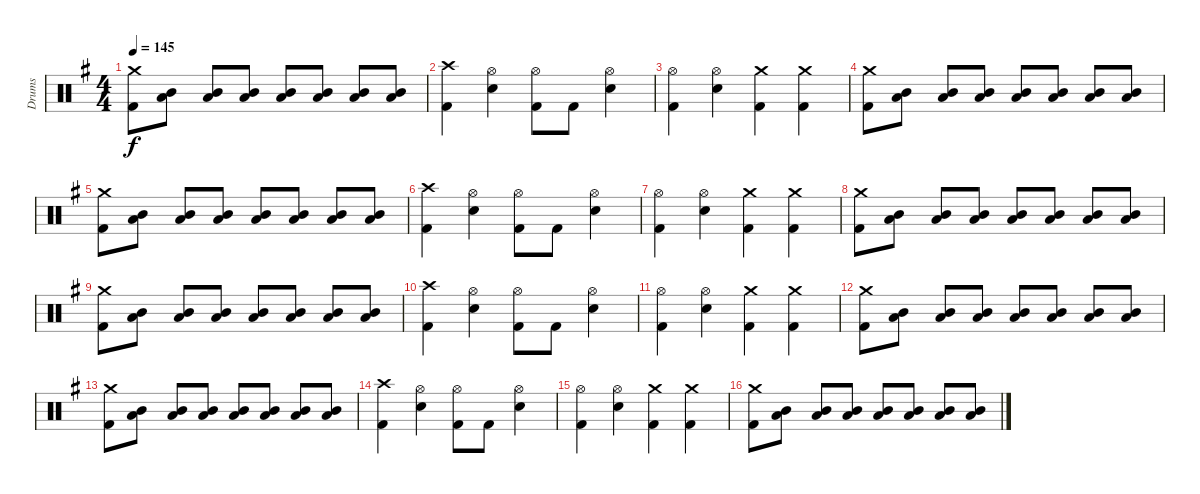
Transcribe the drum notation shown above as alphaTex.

\track ("Drums" "Drums") {instrument percussion}
\staff {score}
\articulation defaults
\ts (4 4)
\tempo 145
\clef neutral
\ks eminor
("Crash medium (hit)" "Kick (hit) 2").8{dy f} ("Low Tom (hit)" "Mid Tom (hit)").8 ("Low Tom (hit)" "Mid Tom (hit)").8 ("Low Tom (hit)" "Mid Tom (hit)").8 ("Low Tom (hit)" "Mid Tom (hit)").8 ("Low Tom (hit)" "Mid Tom (hit)").8 ("Low Tom (hit)" "Mid Tom (hit)").8 ("Low Tom (hit)" "Mid Tom (hit)").8 |
("Crash high (hit)" "Kick (hit) 2").4 ("Hi-Hat (open)" "Electric Snare (hit)").4 ("Hi-Hat (open)" "Kick (hit) 2").8 "Kick (hit) 2".8 ("Hi-Hat (open)" "Electric Snare (hit)").4 |
("Hi-Hat (open)" "Kick (hit) 2").4 ("Electric Snare (hit)" "Hi-Hat (open)").4 ("Crash medium (hit)" "Kick (hit) 2").4 ("Crash medium (hit)" "Kick (hit) 2").4 |
("Crash medium (hit)" "Kick (hit) 2").8 ("Low Tom (hit)" "Mid Tom (hit)").8 ("Low Tom (hit)" "Mid Tom (hit)").8 ("Low Tom (hit)" "Mid Tom (hit)").8 ("Low Tom (hit)" "Mid Tom (hit)").8 ("Low Tom (hit)" "Mid Tom (hit)").8 ("Low Tom (hit)" "Mid Tom (hit)").8 ("Low Tom (hit)" "Mid Tom (hit)").8 |
("Crash medium (hit)" "Kick (hit) 2").8 ("Low Tom (hit)" "Mid Tom (hit)").8 ("Low Tom (hit)" "Mid Tom (hit)").8 ("Low Tom (hit)" "Mid Tom (hit)").8 ("Low Tom (hit)" "Mid Tom (hit)").8 ("Low Tom (hit)" "Mid Tom (hit)").8 ("Low Tom (hit)" "Mid Tom (hit)").8 ("Low Tom (hit)" "Mid Tom (hit)").8 |
("Crash high (hit)" "Kick (hit) 2").4 ("Hi-Hat (open)" "Electric Snare (hit)").4 ("Hi-Hat (open)" "Kick (hit) 2").8 "Kick (hit) 2".8 ("Hi-Hat (open)" "Electric Snare (hit)").4 |
("Hi-Hat (open)" "Kick (hit) 2").4 ("Electric Snare (hit)" "Hi-Hat (open)").4 ("Crash medium (hit)" "Kick (hit) 2").4 ("Crash medium (hit)" "Kick (hit) 2").4 |
("Crash medium (hit)" "Kick (hit) 2").8 ("Low Tom (hit)" "Mid Tom (hit)").8 ("Low Tom (hit)" "Mid Tom (hit)").8 ("Low Tom (hit)" "Mid Tom (hit)").8 ("Low Tom (hit)" "Mid Tom (hit)").8 ("Low Tom (hit)" "Mid Tom (hit)").8 ("Low Tom (hit)" "Mid Tom (hit)").8 ("Low Tom (hit)" "Mid Tom (hit)").8 |
("Crash medium (hit)" "Kick (hit) 2").8 ("Low Tom (hit)" "Mid Tom (hit)").8 ("Low Tom (hit)" "Mid Tom (hit)").8 ("Low Tom (hit)" "Mid Tom (hit)").8 ("Low Tom (hit)" "Mid Tom (hit)").8 ("Low Tom (hit)" "Mid Tom (hit)").8 ("Low Tom (hit)" "Mid Tom (hit)").8 ("Low Tom (hit)" "Mid Tom (hit)").8 |
("Crash high (hit)" "Kick (hit) 2").4 ("Hi-Hat (open)" "Electric Snare (hit)").4 ("Hi-Hat (open)" "Kick (hit) 2").8 "Kick (hit) 2".8 ("Hi-Hat (open)" "Electric Snare (hit)").4 |
("Hi-Hat (open)" "Kick (hit) 2").4 ("Electric Snare (hit)" "Hi-Hat (open)").4 ("Crash medium (hit)" "Kick (hit) 2").4 ("Crash medium (hit)" "Kick (hit) 2").4 |
("Crash medium (hit)" "Kick (hit) 2").8 ("Low Tom (hit)" "Mid Tom (hit)").8 ("Low Tom (hit)" "Mid Tom (hit)").8 ("Low Tom (hit)" "Mid Tom (hit)").8 ("Low Tom (hit)" "Mid Tom (hit)").8 ("Low Tom (hit)" "Mid Tom (hit)").8 ("Low Tom (hit)" "Mid Tom (hit)").8 ("Low Tom (hit)" "Mid Tom (hit)").8 |
("Crash medium (hit)" "Kick (hit) 2").8 ("Low Tom (hit)" "Mid Tom (hit)").8 ("Low Tom (hit)" "Mid Tom (hit)").8 ("Low Tom (hit)" "Mid Tom (hit)").8 ("Low Tom (hit)" "Mid Tom (hit)").8 ("Low Tom (hit)" "Mid Tom (hit)").8 ("Low Tom (hit)" "Mid Tom (hit)").8 ("Low Tom (hit)" "Mid Tom (hit)").8 |
("Crash high (hit)" "Kick (hit) 2").4 ("Hi-Hat (open)" "Electric Snare (hit)").4 ("Hi-Hat (open)" "Kick (hit) 2").8 "Kick (hit) 2".8 ("Hi-Hat (open)" "Electric Snare (hit)").4 |
("Hi-Hat (open)" "Kick (hit) 2").4 ("Electric Snare (hit)" "Hi-Hat (open)").4 ("Crash medium (hit)" "Kick (hit) 2").4 ("Crash medium (hit)" "Kick (hit) 2").4 |
("Crash medium (hit)" "Kick (hit) 2").8 ("Low Tom (hit)" "Mid Tom (hit)").8 ("Low Tom (hit)" "Mid Tom (hit)").8 ("Low Tom (hit)" "Mid Tom (hit)").8 ("Low Tom (hit)" "Mid Tom (hit)").8 ("Low Tom (hit)" "Mid Tom (hit)").8 ("Low Tom (hit)" "Mid Tom (hit)").8 ("Low Tom (hit)" "Mid Tom (hit)").8
